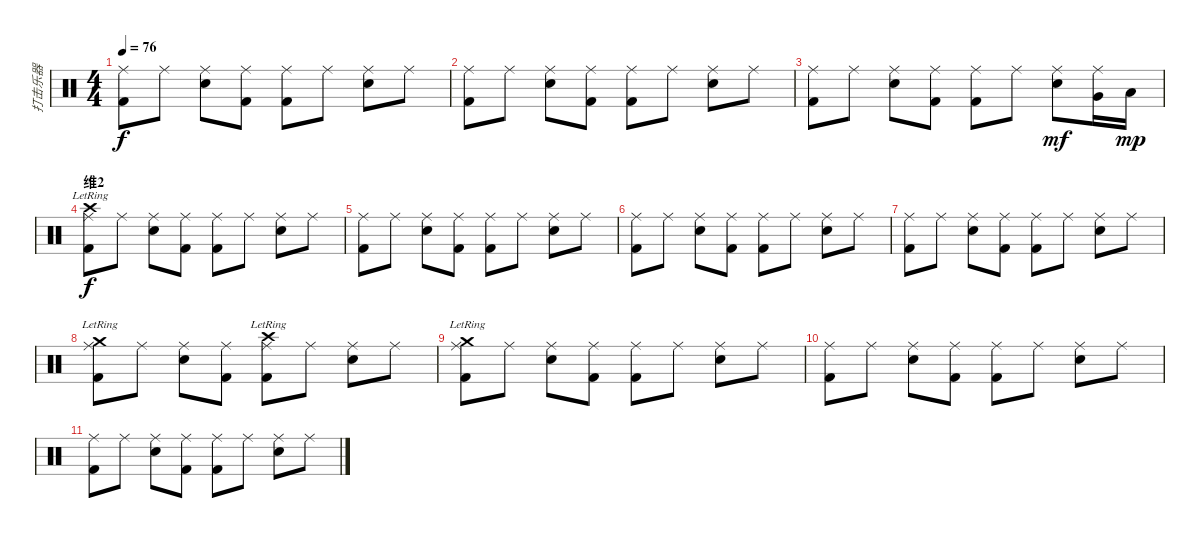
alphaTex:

\track ("打击乐器" "打击乐器") {instrument percussion}
\staff {score}
\articulation defaults
\ts (4 4)
\tempo 76
\clef neutral
\ks c
("Ride (middle)" "Kick (hit) 2").8{dy f} "Ride (middle)".8 ("Ride (middle)" "Snare (hit) 2").8 ("Ride (middle)" "Kick (hit) 2").8 ("Ride (middle)" "Kick (hit) 2").8 "Ride (middle)".8 ("Ride (middle)" "Snare (hit) 2").8 "Ride (middle)".8 |
("Ride (middle)" "Kick (hit) 2").8 "Ride (middle)".8 ("Ride (middle)" "Snare (hit) 2").8 ("Ride (middle)" "Kick (hit) 2").8 ("Ride (middle)" "Kick (hit) 2").8 "Ride (middle)".8 ("Ride (middle)" "Snare (hit) 2").8 "Ride (middle)".8 |
("Ride (middle)" "Kick (hit) 2").8 "Ride (middle)".8 ("Ride (middle)" "Snare (hit) 2").8 ("Ride (middle)" "Kick (hit) 2").8 ("Ride (middle)" "Kick (hit) 2").8 "Ride (middle)".8 ("Ride (middle)" "Snare (hit) 2").8{dy mf} ("Ride (middle)" "Very Low Tom (hit)").16 "Low Floor Tom (hit)".16{dy mp} |
\section ("" "维2")
("Crash high (hit)"{lr} "Ride (middle)" "Kick (hit) 2").8{dy f} "Ride (middle)".8 ("Ride (middle)" "Snare (hit) 2").8 ("Ride (middle)" "Kick (hit) 2").8 ("Ride (middle)" "Kick (hit) 2").8 "Ride (middle)".8 ("Ride (middle)" "Snare (hit) 2").8 "Ride (middle)".8 |
("Ride (middle)" "Kick (hit) 2").8 "Ride (middle)".8 ("Ride (middle)" "Snare (hit) 2").8 ("Ride (middle)" "Kick (hit) 2").8 ("Ride (middle)" "Kick (hit) 2").8 "Ride (middle)".8 ("Ride (middle)" "Snare (hit) 2").8 "Ride (middle)".8 |
("Ride (middle)" "Kick (hit) 2").8 "Ride (middle)".8 ("Ride (middle)" "Snare (hit) 2").8 ("Ride (middle)" "Kick (hit) 2").8 ("Ride (middle)" "Kick (hit) 2").8 "Ride (middle)".8 ("Ride (middle)" "Snare (hit) 2").8 "Ride (middle)".8 |
("Ride (middle)" "Kick (hit) 2").8 "Ride (middle)".8 ("Ride (middle)" "Snare (hit) 2").8 ("Ride (middle)" "Kick (hit) 2").8 ("Ride (middle)" "Kick (hit) 2").8 "Ride (middle)".8 ("Ride (middle)" "Snare (hit) 2").8 "Ride (middle)".8 |
("Crash medium (hit)"{lr} "Ride (middle)" "Kick (hit) 2").8 "Ride (middle)".8 ("Ride (middle)" "Snare (hit) 2").8 ("Ride (middle)" "Kick (hit) 2").8 ("Crash high (hit)"{lr} "Ride (middle)" "Kick (hit) 2").8 "Ride (middle)".8 ("Ride (middle)" "Snare (hit) 2").8 "Ride (middle)".8 |
("Crash medium (hit)"{lr} "Ride (middle)" "Kick (hit) 2").8 "Ride (middle)".8 ("Ride (middle)" "Snare (hit) 2").8 ("Ride (middle)" "Kick (hit) 2").8 ("Ride (middle)" "Kick (hit) 2").8 "Ride (middle)".8 ("Ride (middle)" "Snare (hit) 2").8 "Ride (middle)".8 |
("Ride (middle)" "Kick (hit) 2").8 "Ride (middle)".8 ("Ride (middle)" "Snare (hit) 2").8 ("Ride (middle)" "Kick (hit) 2").8 ("Ride (middle)" "Kick (hit) 2").8 "Ride (middle)".8 ("Ride (middle)" "Snare (hit) 2").8 "Ride (middle)".8 |
("Ride (middle)" "Kick (hit) 2").8 "Ride (middle)".8 ("Ride (middle)" "Snare (hit) 2").8 ("Ride (middle)" "Kick (hit) 2").8 ("Ride (middle)" "Kick (hit) 2").8 "Ride (middle)".8 ("Ride (middle)" "Snare (hit) 2").8 "Ride (middle)".8
